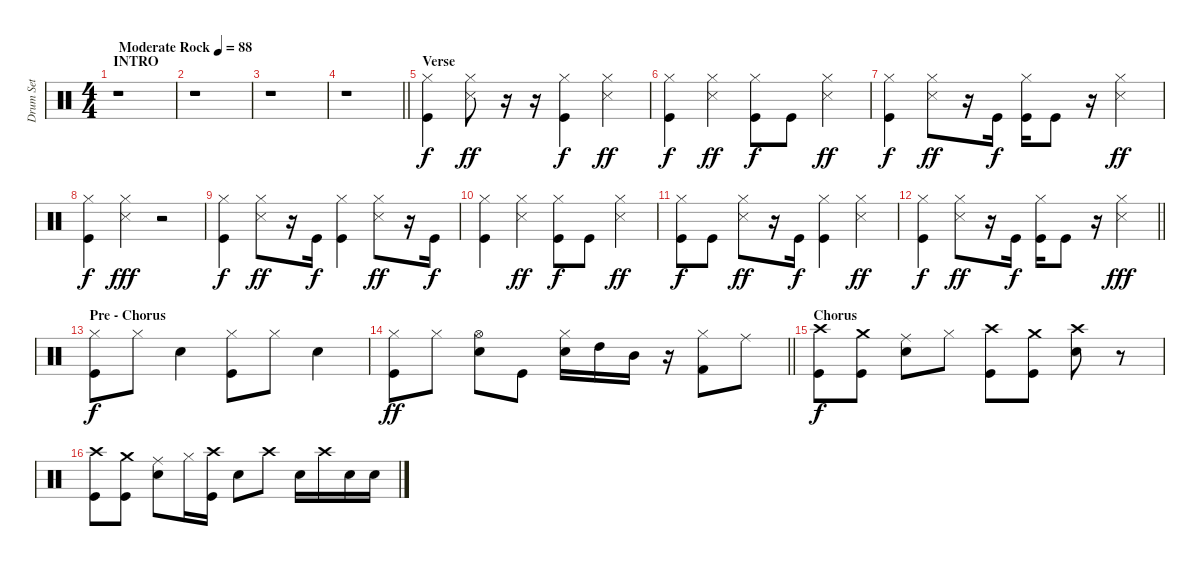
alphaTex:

\track ("Drum Set" "Drum Set") {instrument percussion}
\staff {score}
\articulation defaults
\ts (4 4)
\section ("" "INTRO")
\tempo (88 "Moderate Rock")
\clef neutral
\ks c
r.1{dy f} |
r.1 |
r.1 |
\barLineRight lightlight
r.1 |
\section ("" "Verse")
("Hi-Hat (closed)" "Kick (hit)").4 ("Hi-Hat (closed)" "Snare (side stick) 3").8{dy ff} r.16 r.16 ("Hi-Hat (closed)" "Kick (hit)").4{dy f} ("Hi-Hat (closed)" "Snare (side stick) 3").4{dy ff} |
("Hi-Hat (closed)" "Kick (hit)").4{dy f} ("Hi-Hat (closed)" "Snare (side stick) 3").4{dy ff} ("Hi-Hat (closed)" "Kick (hit)").8{dy f} "Kick (hit)".8 ("Hi-Hat (closed)" "Snare (side stick) 3").4{dy ff} |
("Hi-Hat (closed)" "Kick (hit)").4{dy f} ("Hi-Hat (closed)" "Snare (side stick) 3").8{dy ff} r.16 "Kick (hit)".16{dy f} ("Hi-Hat (closed)" "Kick (hit)").16 "Kick (hit)".8 r.16 ("Hi-Hat (closed)" "Snare (side stick) 3").4{dy ff} |
("Hi-Hat (closed)" "Kick (hit)").4{dy f} ("Hi-Hat (closed)" "Snare (side stick) 3").4{dy fff} r.2 |
("Hi-Hat (closed)" "Kick (hit)").4{dy f} ("Hi-Hat (closed)" "Snare (side stick) 3").8{dy ff} r.16 "Kick (hit)".16{dy f} ("Hi-Hat (closed)" "Kick (hit)").4 ("Hi-Hat (closed)" "Snare (side stick) 3").8{dy ff} r.16 "Kick (hit)".16{dy f} |
("Hi-Hat (closed)" "Kick (hit)").4 ("Hi-Hat (closed)" "Snare (side stick) 3").4{dy ff} ("Hi-Hat (closed)" "Kick (hit)").8{dy f} "Kick (hit)".8 ("Hi-Hat (closed)" "Snare (side stick) 3").4{dy ff} |
("Hi-Hat (closed)" "Kick (hit)").8{dy f} "Kick (hit)".8 ("Hi-Hat (closed)" "Snare (side stick) 3").8{dy ff} r.16 "Kick (hit)".16{dy f} ("Hi-Hat (closed)" "Kick (hit)").4 ("Hi-Hat (closed)" "Snare (side stick) 3").4{dy ff} |
\barLineRight lightlight
("Hi-Hat (closed)" "Kick (hit)").4{dy f} ("Hi-Hat (closed)" "Snare (side stick) 3").8{dy ff} r.16 "Kick (hit)".16{dy f} ("Hi-Hat (closed)" "Kick (hit)").16 "Kick (hit)".8 r.16 ("Hi-Hat (closed)" "Snare (side stick) 3").4{dy fff} |
\section ("" "Pre - Chorus")
("Hi-Hat (closed)" "Kick (hit)").8{dy f} "Hi-Hat (closed)".8 "Snare (hit) 2".4 ("Hi-Hat (closed)" "Kick (hit)").8 "Hi-Hat (closed)".8 "Snare (hit) 2".4 |
\barLineRight lightlight
("Hi-Hat (closed)" "Kick (hit)").8{dy ff} "Hi-Hat (closed)".8 ("Hi-Hat (open)" "Snare (hit) 2").8 "Kick (hit)".8 ("Hi-Hat (closed)" "Snare (hit) 2").16 "High Tom (hit)".16 "Mid Tom (hit)".16 r.16 ("Hi-Hat (closed)" "Kick (hit) 2").8 "Ride (middle)".8 |
\section ("" "Chorus")
("Crash high (hit)" "Kick (hit)").8{dy f} ("Crash medium (hit)" "Kick (hit)").8 ("Ride (middle)" "Snare (hit) 2").8 "Hi-Hat (closed)".8 ("Crash high (hit)" "Kick (hit)").8 ("Crash medium (hit)" "Kick (hit)").8 ("Crash high (hit)" "Snare (hit) 2").8 r.8 |
("Crash high (hit)" "Kick (hit)").8 ("Crash medium (hit)" "Kick (hit)").8 ("Ride (middle)" "Snare (hit) 2").8 "Hi-Hat (closed)".16 ("Crash high (hit)" "Kick (hit)").16 "Snare (hit) 2".8 "Crash high (hit)".8 "Snare (hit) 2".16 "Crash high (hit)".16 "Snare (hit) 2".16 "Snare (hit) 2".16
